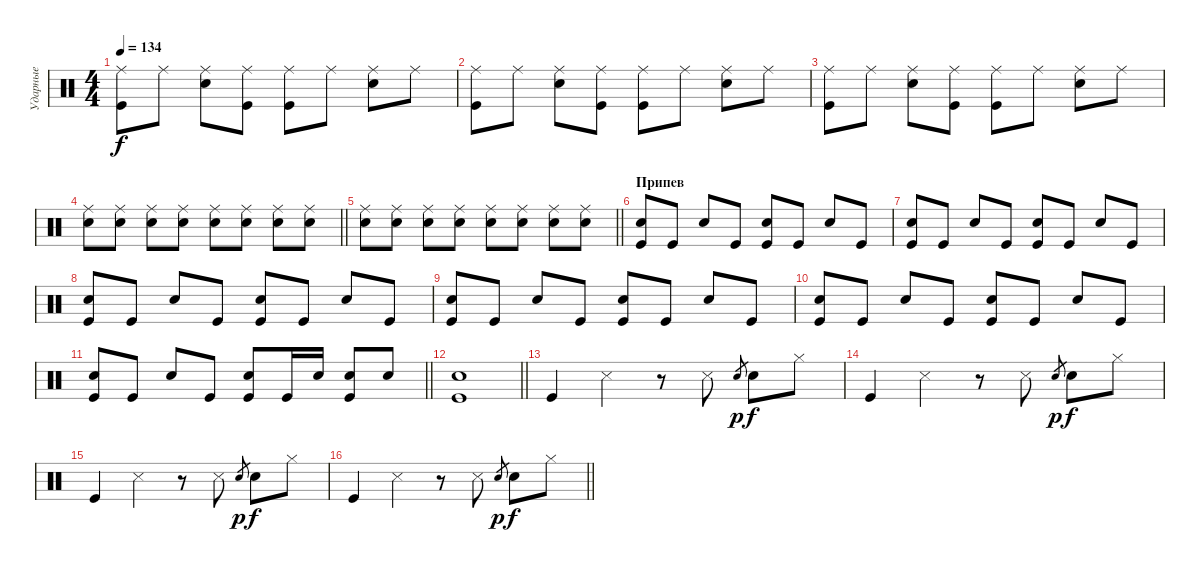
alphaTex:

\track ("Ударные" "Ударные") {instrument percussion}
\staff {score}
\articulation defaults
\ts (4 4)
\tempo 134
\clef neutral
\ks c
("Ride (middle)" "Kick (hit)").8{dy f} "Ride (middle)".8 ("Ride (middle)" "Snare (hit) 2").8 ("Ride (middle)" "Kick (hit)").8 ("Ride (middle)" "Kick (hit)").8 "Ride (middle)".8 ("Ride (middle)" "Snare (hit) 2").8 "Ride (middle)".8 |
("Ride (middle)" "Kick (hit)").8 "Ride (middle)".8 ("Ride (middle)" "Snare (hit) 2").8 ("Ride (middle)" "Kick (hit)").8 ("Ride (middle)" "Kick (hit)").8 "Ride (middle)".8 ("Ride (middle)" "Snare (hit) 2").8 "Ride (middle)".8 |
("Ride (middle)" "Kick (hit)").8 "Ride (middle)".8 ("Ride (middle)" "Snare (hit) 2").8 ("Ride (middle)" "Kick (hit)").8 ("Ride (middle)" "Kick (hit)").8 "Ride (middle)".8 ("Ride (middle)" "Snare (hit) 2").8 "Ride (middle)".8 |
\barLineRight lightlight
("Ride (middle)" "Snare (hit) 2").8 ("Ride (middle)" "Snare (hit) 2").8 ("Ride (middle)" "Snare (hit) 2").8 ("Ride (middle)" "Snare (hit) 2").8 ("Ride (middle)" "Snare (hit) 2").8 ("Ride (middle)" "Snare (hit) 2").8 ("Ride (middle)" "Snare (hit) 2").8 ("Ride (middle)" "Snare (hit) 2").8 |
\barLineRight lightlight
("Ride (middle)" "Snare (hit) 2").8 ("Ride (middle)" "Snare (hit) 2").8 ("Ride (middle)" "Snare (hit) 2").8 ("Ride (middle)" "Snare (hit) 2").8 ("Ride (middle)" "Snare (hit) 2").8 ("Ride (middle)" "Snare (hit) 2").8 ("Ride (middle)" "Snare (hit) 2").8 ("Ride (middle)" "Snare (hit) 2").8 |
\section ("" "Припев")
("Snare (hit) 2" "Kick (hit)").8 "Kick (hit)".8 "Snare (hit) 2".8 "Kick (hit)".8 ("Snare (hit) 2" "Kick (hit)").8 "Kick (hit)".8 "Snare (hit) 2".8 "Kick (hit)".8 |
("Snare (hit) 2" "Kick (hit)").8 "Kick (hit)".8 "Snare (hit) 2".8 "Kick (hit)".8 ("Snare (hit) 2" "Kick (hit)").8 "Kick (hit)".8 "Snare (hit) 2".8 "Kick (hit)".8 |
("Snare (hit) 2" "Kick (hit)").8 "Kick (hit)".8 "Snare (hit) 2".8 "Kick (hit)".8 ("Snare (hit) 2" "Kick (hit)").8 "Kick (hit)".8 "Snare (hit) 2".8 "Kick (hit)".8 |
("Snare (hit) 2" "Kick (hit)").8 "Kick (hit)".8 "Snare (hit) 2".8 "Kick (hit)".8 ("Snare (hit) 2" "Kick (hit)").8 "Kick (hit)".8 "Snare (hit) 2".8 "Kick (hit)".8 |
("Snare (hit) 2" "Kick (hit)").8 "Kick (hit)".8 "Snare (hit) 2".8 "Kick (hit)".8 ("Snare (hit) 2" "Kick (hit)").8 "Kick (hit)".8 "Snare (hit) 2".8 "Kick (hit)".8 |
\barLineRight lightlight
("Snare (hit) 2" "Kick (hit)").8 "Kick (hit)".8 "Snare (hit) 2".8 "Kick (hit)".8 ("Snare (hit) 2" "Kick (hit)").8 "Kick (hit)".16 "Snare (hit) 2".16 ("Snare (hit) 2" "Kick (hit)").8 "Snare (hit) 2".8 |
\barLineRight lightlight
("Kick (hit)" "Snare (hit) 2").1 |
"Kick (hit)".4 "Snare (side stick) 3".4 r.8 "Snare (side stick) 3".8 "Snare (hit) 2".8{gr dy p} "Snare (hit) 2".8{dy f} "Hi-Hat (closed)".8 |
"Kick (hit)".4 "Snare (side stick) 3".4 r.8 "Snare (side stick) 3".8 "Snare (hit) 2".8{gr dy p} "Snare (hit) 2".8{dy f} "Hi-Hat (closed)".8 |
"Kick (hit)".4 "Snare (side stick) 3".4 r.8 "Snare (side stick) 3".8 "Snare (hit) 2".8{gr dy p} "Snare (hit) 2".8{dy f} "Hi-Hat (closed)".8 |
\barLineRight lightlight "Kick (hit)".4 "Snare (side stick) 3".4
r.8 "Snare (side stick) 3".8 "Snare (hit) 2".8{gr dy p} "Snare (hit) 2".8{dy f} "Hi-Hat (closed)".8
